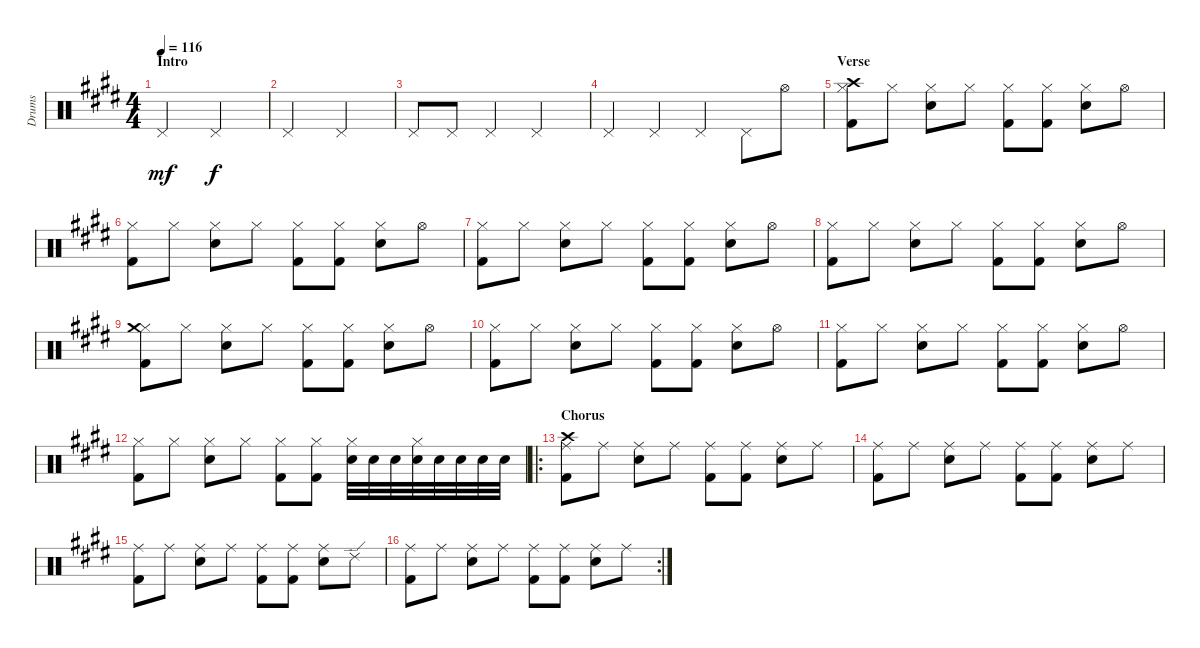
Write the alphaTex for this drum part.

\track ("Drums" "Drums") {instrument percussion}
\staff {score}
\articulation defaults
\ts (4 4)
\section ("" "Intro")
\tempo 116
\clef neutral
\ks c#minor "Pedal Hi-Hat (hit)".2{dy mf} "Pedal Hi-Hat (hit)".2{dy f}
|
"Pedal Hi-Hat (hit)".2 "Pedal Hi-Hat (hit)".2 |
"Pedal Hi-Hat (hit)".8 "Pedal Hi-Hat (hit)".8 "Pedal Hi-Hat (hit)".4 "Pedal Hi-Hat (hit)".2 |
"Pedal Hi-Hat (hit)".4 "Pedal Hi-Hat (hit)".4 "Pedal Hi-Hat (hit)".4 "Pedal Hi-Hat (hit)".8 "Hi-Hat (open)".8 |
\section ("" "Verse")
("Hi-Hat (closed)" "Crash high (hit)" "Kick (hit) 2").8 "Hi-Hat (closed)".8 ("Hi-Hat (closed)" "Snare (hit) 2").8 "Hi-Hat (closed)".8 ("Hi-Hat (closed)" "Kick (hit) 2").8 ("Hi-Hat (closed)" "Kick (hit) 2").8 ("Hi-Hat (closed)" "Snare (hit) 2").8 "Hi-Hat (open)".8 |
("Hi-Hat (closed)" "Kick (hit) 2").8 "Hi-Hat (closed)".8 ("Hi-Hat (closed)" "Snare (hit) 2").8 "Hi-Hat (closed)".8 ("Hi-Hat (closed)" "Kick (hit) 2").8 ("Hi-Hat (closed)" "Kick (hit) 2").8 ("Hi-Hat (closed)" "Snare (hit) 2").8 "Hi-Hat (open)".8 |
("Hi-Hat (closed)" "Kick (hit) 2").8 "Hi-Hat (closed)".8 ("Hi-Hat (closed)" "Snare (hit) 2").8 "Hi-Hat (closed)".8 ("Hi-Hat (closed)" "Kick (hit) 2").8 ("Hi-Hat (closed)" "Kick (hit) 2").8 ("Hi-Hat (closed)" "Snare (hit) 2").8 "Hi-Hat (open)".8 |
("Hi-Hat (closed)" "Kick (hit) 2").8 "Hi-Hat (closed)".8 ("Hi-Hat (closed)" "Snare (hit) 2").8 "Hi-Hat (closed)".8 ("Hi-Hat (closed)" "Kick (hit) 2").8 ("Hi-Hat (closed)" "Kick (hit) 2").8 ("Hi-Hat (closed)" "Snare (hit) 2").8 "Hi-Hat (open)".8 |
("Hi-Hat (closed)" "Crash medium (hit)" "Kick (hit) 2").8 "Hi-Hat (closed)".8 ("Hi-Hat (closed)" "Snare (hit) 2").8 "Hi-Hat (closed)".8 ("Hi-Hat (closed)" "Kick (hit) 2").8 ("Hi-Hat (closed)" "Kick (hit) 2").8 ("Hi-Hat (closed)" "Snare (hit) 2").8 "Hi-Hat (open)".8 |
("Hi-Hat (closed)" "Kick (hit) 2").8 "Hi-Hat (closed)".8 ("Hi-Hat (closed)" "Snare (hit) 2").8 "Hi-Hat (closed)".8 ("Hi-Hat (closed)" "Kick (hit) 2").8 ("Hi-Hat (closed)" "Kick (hit) 2").8 ("Hi-Hat (closed)" "Snare (hit) 2").8 "Hi-Hat (open)".8 |
("Hi-Hat (closed)" "Kick (hit) 2").8 "Hi-Hat (closed)".8 ("Hi-Hat (closed)" "Snare (hit) 2").8 "Hi-Hat (closed)".8 ("Hi-Hat (closed)" "Kick (hit) 2").8 ("Hi-Hat (closed)" "Kick (hit) 2").8 ("Hi-Hat (closed)" "Snare (hit) 2").8 "Hi-Hat (open)".8 |
("Hi-Hat (closed)" "Kick (hit) 2").8 "Hi-Hat (closed)".8 ("Hi-Hat (closed)" "Snare (hit) 2").8 "Hi-Hat (closed)".8 ("Hi-Hat (closed)" "Kick (hit) 2").8 ("Hi-Hat (closed)" "Kick (hit) 2").8 ("Hi-Hat (closed)" "Snare (hit) 2").32 "Snare (hit) 2".32 "Snare (hit) 2".32 ("Hi-Hat (closed)" "Snare (hit) 2").32 "Snare (hit) 2".32 "Snare (hit) 2".32 "Snare (hit) 2".32 "Snare (hit) 2".32 |
\ro
\section ("" "Chorus")
("Ride (middle)" "Crash high (hit)" "Kick (hit) 2").8 "Ride (middle)".8 ("Ride (middle)" "Snare (hit) 2").8 "Ride (middle)".8 ("Ride (middle)" "Kick (hit) 2").8 ("Ride (middle)" "Kick (hit) 2").8 ("Ride (middle)" "Snare (hit) 2").8 "Ride (middle)".8 |
("Ride (middle)" "Kick (hit) 2").8 "Ride (middle)".8 ("Ride (middle)" "Snare (hit) 2").8 "Ride (middle)".8 ("Ride (middle)" "Kick (hit) 2").8 ("Ride (middle)" "Kick (hit) 2").8 ("Ride (middle)" "Snare (hit) 2").8 "Ride (middle)".8 |
("Ride (middle)" "Kick (hit) 2").8 "Ride (middle)".8 ("Ride (middle)" "Snare (hit) 2").8 "Ride (middle)".8 ("Ride (middle)" "Kick (hit) 2").8 ("Ride (middle)" "Kick (hit) 2").8 ("Ride (middle)" "Snare (hit) 2").8 "Ride (edge) 2".8 |
\rc 2
("Ride (middle)" "Kick (hit) 2").8 "Ride (middle)".8 ("Ride (middle)" "Snare (hit) 2").8 "Ride (middle)".8 ("Ride (middle)" "Kick (hit) 2").8 ("Ride (middle)" "Kick (hit) 2").8 ("Ride (middle)" "Snare (hit) 2").8 "Ride (middle)".8
